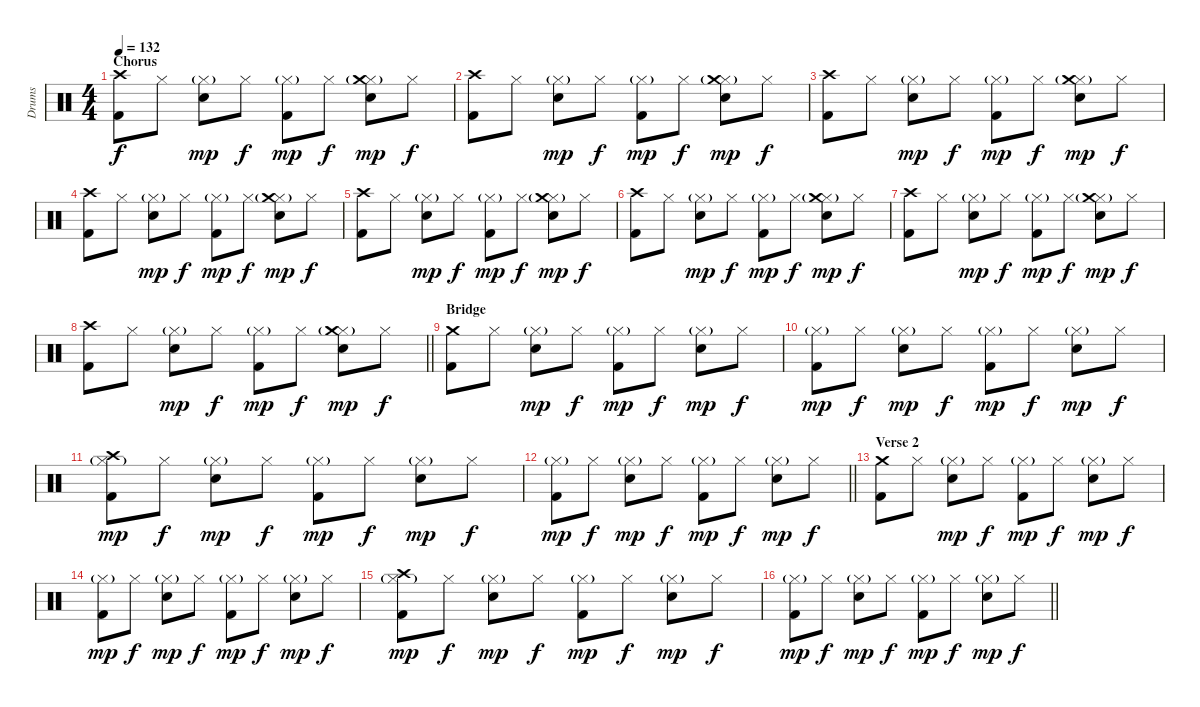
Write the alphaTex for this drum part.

\track ("Drums" "Drums") {instrument percussion}
\staff {score}
\articulation defaults
\ts (4 4)
\section ("" "Chorus")
\tempo 132
\clef neutral
\ks c
("Crash high (hit)" "Kick (hit) 2").8{dy f} "Hi-Hat (closed)".8 ("Hi-Hat (closed)"{g} "Snare (hit) 2").8{dy mp} "Hi-Hat (closed)".8{dy f} ("Hi-Hat (closed)"{g} "Kick (hit) 2").8{dy mp} "Hi-Hat (closed)".8{dy f} ("Hi-Hat (closed)"{g} "Crash medium (hit)" "Snare (hit) 2").8{dy mp} "Hi-Hat (closed)".8{dy f} |
("Crash high (hit)" "Kick (hit) 2").8 "Hi-Hat (closed)".8 ("Hi-Hat (closed)"{g} "Snare (hit) 2").8{dy mp} "Hi-Hat (closed)".8{dy f} ("Hi-Hat (closed)"{g} "Kick (hit) 2").8{dy mp} "Hi-Hat (closed)".8{dy f} ("Hi-Hat (closed)"{g} "Crash medium (hit)" "Snare (hit) 2").8{dy mp} "Hi-Hat (closed)".8{dy f} |
("Crash high (hit)" "Kick (hit) 2").8 "Hi-Hat (closed)".8 ("Hi-Hat (closed)"{g} "Snare (hit) 2").8{dy mp} "Hi-Hat (closed)".8{dy f} ("Hi-Hat (closed)"{g} "Kick (hit) 2").8{dy mp} "Hi-Hat (closed)".8{dy f} ("Hi-Hat (closed)"{g} "Crash medium (hit)" "Snare (hit) 2").8{dy mp} "Hi-Hat (closed)".8{dy f} |
("Crash high (hit)" "Kick (hit) 2").8 "Hi-Hat (closed)".8 ("Hi-Hat (closed)"{g} "Snare (hit) 2").8{dy mp} "Hi-Hat (closed)".8{dy f} ("Hi-Hat (closed)"{g} "Kick (hit) 2").8{dy mp} "Hi-Hat (closed)".8{dy f} ("Hi-Hat (closed)"{g} "Crash medium (hit)" "Snare (hit) 2").8{dy mp} "Hi-Hat (closed)".8{dy f} |
("Crash high (hit)" "Kick (hit) 2").8 "Hi-Hat (closed)".8 ("Hi-Hat (closed)"{g} "Snare (hit) 2").8{dy mp} "Hi-Hat (closed)".8{dy f} ("Hi-Hat (closed)"{g} "Kick (hit) 2").8{dy mp} "Hi-Hat (closed)".8{dy f} ("Hi-Hat (closed)"{g} "Crash medium (hit)" "Snare (hit) 2").8{dy mp} "Hi-Hat (closed)".8{dy f} |
("Crash high (hit)" "Kick (hit) 2").8 "Hi-Hat (closed)".8 ("Hi-Hat (closed)"{g} "Snare (hit) 2").8{dy mp} "Hi-Hat (closed)".8{dy f} ("Hi-Hat (closed)"{g} "Kick (hit) 2").8{dy mp} "Hi-Hat (closed)".8{dy f} ("Hi-Hat (closed)"{g} "Crash medium (hit)" "Snare (hit) 2").8{dy mp} "Hi-Hat (closed)".8{dy f} |
("Crash high (hit)" "Kick (hit) 2").8 "Hi-Hat (closed)".8 ("Hi-Hat (closed)"{g} "Snare (hit) 2").8{dy mp} "Hi-Hat (closed)".8{dy f} ("Hi-Hat (closed)"{g} "Kick (hit) 2").8{dy mp} "Hi-Hat (closed)".8{dy f} ("Hi-Hat (closed)"{g} "Crash medium (hit)" "Snare (hit) 2").8{dy mp} "Hi-Hat (closed)".8{dy f} |
\barLineRight lightlight
("Crash high (hit)" "Kick (hit) 2").8 "Hi-Hat (closed)".8 ("Hi-Hat (closed)"{g} "Snare (hit) 2").8{dy mp} "Hi-Hat (closed)".8{dy f} ("Hi-Hat (closed)"{g} "Kick (hit) 2").8{dy mp} "Hi-Hat (closed)".8{dy f} ("Hi-Hat (closed)"{g} "Crash medium (hit)" "Snare (hit) 2").8{dy mp} "Hi-Hat (closed)".8{dy f} |
\section ("" "Bridge")
("Crash medium (hit)" "Kick (hit) 2").8 "Hi-Hat (closed)".8 ("Hi-Hat (closed)"{g} "Snare (hit) 2").8{dy mp} "Hi-Hat (closed)".8{dy f} ("Hi-Hat (closed)"{g} "Kick (hit) 2").8{dy mp} "Hi-Hat (closed)".8{dy f} ("Hi-Hat (closed)"{g} "Snare (hit) 2").8{dy mp} "Hi-Hat (closed)".8{dy f} |
("Hi-Hat (closed)"{g} "Kick (hit) 2").8{dy mp} "Hi-Hat (closed)".8{dy f} ("Hi-Hat (closed)"{g} "Snare (hit) 2").8{dy mp} "Hi-Hat (closed)".8{dy f} ("Hi-Hat (closed)"{g} "Kick (hit) 2").8{dy mp} "Hi-Hat (closed)".8{dy f} ("Hi-Hat (closed)"{g} "Snare (hit) 2").8{dy mp} "Hi-Hat (closed)".8{dy f} |
("Hi-Hat (closed)"{g} "Crash high (hit)" "Kick (hit) 2").8{dy mp} "Hi-Hat (closed)".8{dy f} ("Hi-Hat (closed)"{g} "Snare (hit) 2").8{dy mp} "Hi-Hat (closed)".8{dy f} ("Hi-Hat (closed)"{g} "Kick (hit) 2").8{dy mp} "Hi-Hat (closed)".8{dy f} ("Hi-Hat (closed)"{g} "Snare (hit) 2").8{dy mp} "Hi-Hat (closed)".8{dy f} |
\barLineRight lightlight
("Hi-Hat (closed)"{g} "Kick (hit) 2").8{dy mp} "Hi-Hat (closed)".8{dy f} ("Hi-Hat (closed)"{g} "Snare (hit) 2").8{dy mp} "Hi-Hat (closed)".8{dy f} ("Hi-Hat (closed)"{g} "Kick (hit) 2").8{dy mp} "Hi-Hat (closed)".8{dy f} ("Hi-Hat (closed)"{g} "Snare (hit) 2").8{dy mp} "Hi-Hat (closed)".8{dy f} |
\section ("" "Verse 2")
("Crash medium (hit)" "Kick (hit) 2").8 "Hi-Hat (closed)".8 ("Hi-Hat (closed)"{g} "Snare (hit) 2").8{dy mp} "Hi-Hat (closed)".8{dy f} ("Hi-Hat (closed)"{g} "Kick (hit) 2").8{dy mp} "Hi-Hat (closed)".8{dy f} ("Hi-Hat (closed)"{g} "Snare (hit) 2").8{dy mp} "Hi-Hat (closed)".8{dy f} |
("Hi-Hat (closed)"{g} "Kick (hit) 2").8{dy mp} "Hi-Hat (closed)".8{dy f} ("Hi-Hat (closed)"{g} "Snare (hit) 2").8{dy mp} "Hi-Hat (closed)".8{dy f} ("Hi-Hat (closed)"{g} "Kick (hit) 2").8{dy mp} "Hi-Hat (closed)".8{dy f} ("Hi-Hat (closed)"{g} "Snare (hit) 2").8{dy mp} "Hi-Hat (closed)".8{dy f} |
("Hi-Hat (closed)"{g} "Crash high (hit)" "Kick (hit) 2").8{dy mp} "Hi-Hat (closed)".8{dy f} ("Hi-Hat (closed)"{g} "Snare (hit) 2").8{dy mp} "Hi-Hat (closed)".8{dy f} ("Hi-Hat (closed)"{g} "Kick (hit) 2").8{dy mp} "Hi-Hat (closed)".8{dy f} ("Hi-Hat (closed)"{g} "Snare (hit) 2").8{dy mp} "Hi-Hat (closed)".8{dy f} |
\barLineRight lightlight
("Hi-Hat (closed)"{g} "Kick (hit) 2").8{dy mp} "Hi-Hat (closed)".8{dy f} ("Hi-Hat (closed)"{g} "Snare (hit) 2").8{dy mp} "Hi-Hat (closed)".8{dy f} ("Hi-Hat (closed)"{g} "Kick (hit) 2").8{dy mp} "Hi-Hat (closed)".8{dy f} ("Hi-Hat (closed)"{g} "Snare (hit) 2").8{dy mp} "Hi-Hat (closed)".8{dy f}
